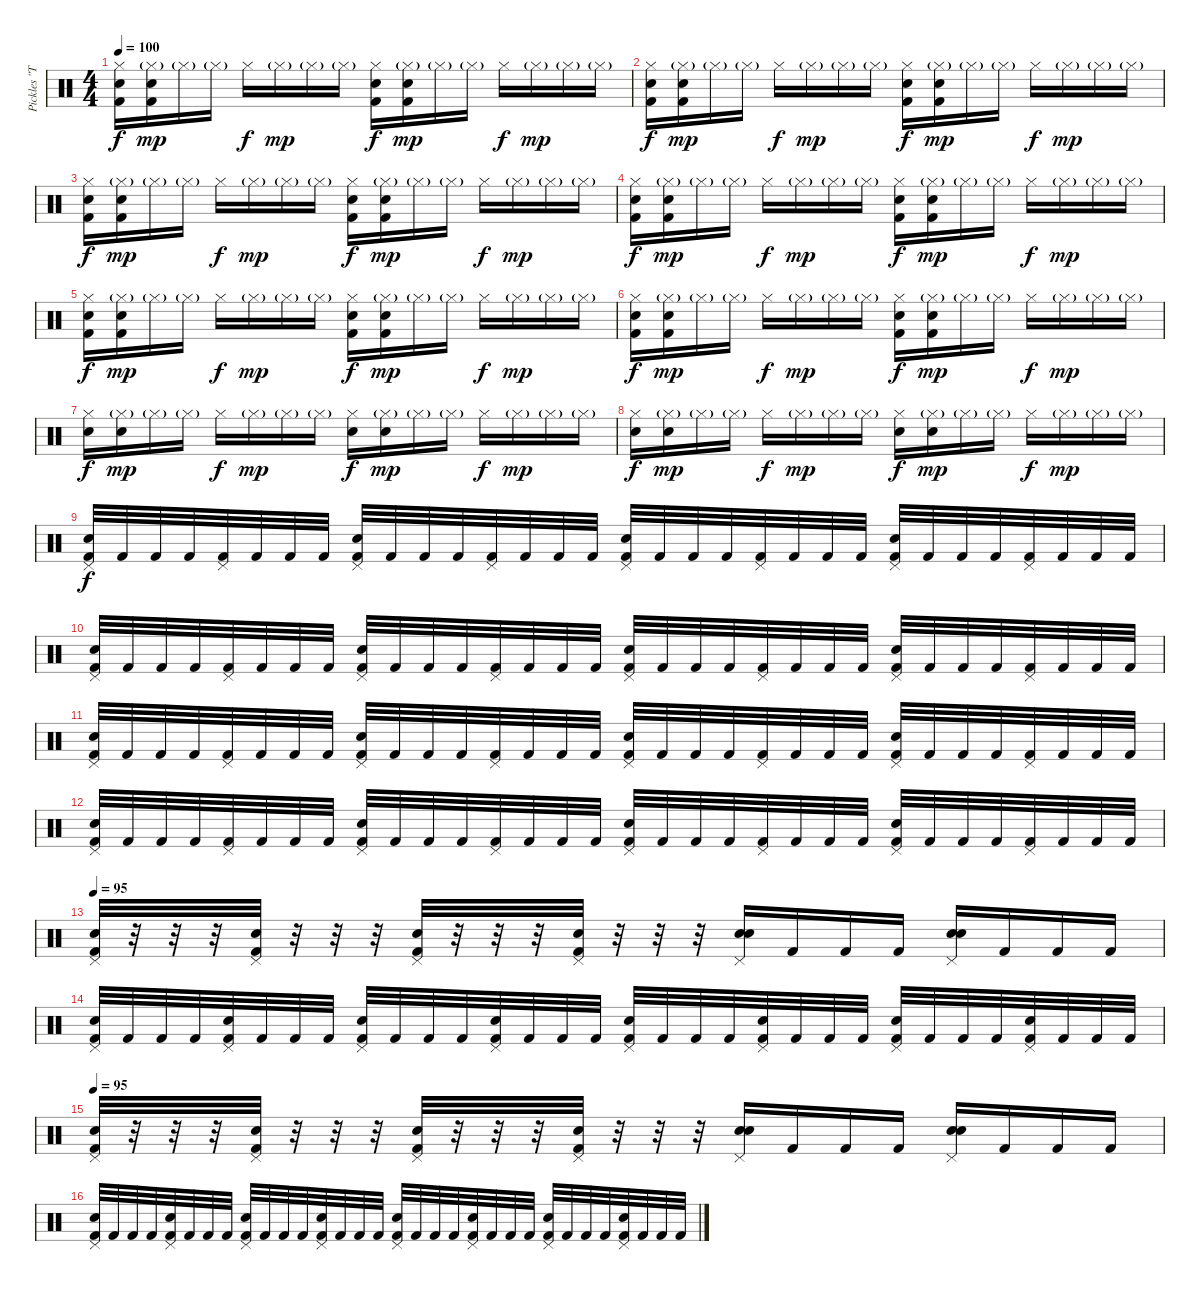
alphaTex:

\track ("Pickles \"The Drummer\"" "Pickles \"T") {instrument percussion}
\staff {score}
\articulation defaults
\ts (4 4)
\tempo 100
\clef neutral
\ks c
("Hi-Hat (closed)" "Kick (hit) 2" "Snare (hit) 2").16{dy f} ("Hi-Hat (closed)"{g} "Kick (hit) 2" "Snare (hit) 2").16{dy mp} "Hi-Hat (closed)"{g}.16 "Hi-Hat (closed)"{g}.16 "Hi-Hat (closed)".16{dy f} "Hi-Hat (closed)"{g}.16{dy mp} "Hi-Hat (closed)"{g}.16 "Hi-Hat (closed)"{g}.16 ("Hi-Hat (closed)" "Kick (hit) 2" "Snare (hit) 2").16{dy f} ("Hi-Hat (closed)"{g} "Kick (hit) 2" "Snare (hit) 2").16{dy mp} "Hi-Hat (closed)"{g}.16 "Hi-Hat (closed)"{g}.16 "Hi-Hat (closed)".16{dy f} "Hi-Hat (closed)"{g}.16{dy mp} "Hi-Hat (closed)"{g}.16 "Hi-Hat (closed)"{g}.16 |
("Hi-Hat (closed)" "Kick (hit) 2" "Snare (hit) 2").16{dy f} ("Hi-Hat (closed)"{g} "Kick (hit) 2" "Snare (hit) 2").16{dy mp} "Hi-Hat (closed)"{g}.16 "Hi-Hat (closed)"{g}.16 "Hi-Hat (closed)".16{dy f} "Hi-Hat (closed)"{g}.16{dy mp} "Hi-Hat (closed)"{g}.16 "Hi-Hat (closed)"{g}.16 ("Hi-Hat (closed)" "Kick (hit) 2" "Snare (hit) 2").16{dy f} ("Hi-Hat (closed)"{g} "Kick (hit) 2" "Snare (hit) 2").16{dy mp} "Hi-Hat (closed)"{g}.16 "Hi-Hat (closed)"{g}.16 "Hi-Hat (closed)".16{dy f} "Hi-Hat (closed)"{g}.16{dy mp} "Hi-Hat (closed)"{g}.16 "Hi-Hat (closed)"{g}.16 |
("Hi-Hat (closed)" "Kick (hit) 2" "Snare (hit) 2").16{dy f} ("Hi-Hat (closed)"{g} "Kick (hit) 2" "Snare (hit) 2").16{dy mp} "Hi-Hat (closed)"{g}.16 "Hi-Hat (closed)"{g}.16 "Hi-Hat (closed)".16{dy f} "Hi-Hat (closed)"{g}.16{dy mp} "Hi-Hat (closed)"{g}.16 "Hi-Hat (closed)"{g}.16 ("Hi-Hat (closed)" "Kick (hit) 2" "Snare (hit) 2").16{dy f} ("Hi-Hat (closed)"{g} "Kick (hit) 2" "Snare (hit) 2").16{dy mp} "Hi-Hat (closed)"{g}.16 "Hi-Hat (closed)"{g}.16 "Hi-Hat (closed)".16{dy f} "Hi-Hat (closed)"{g}.16{dy mp} "Hi-Hat (closed)"{g}.16 "Hi-Hat (closed)"{g}.16 |
("Hi-Hat (closed)" "Kick (hit) 2" "Snare (hit) 2").16{dy f} ("Hi-Hat (closed)"{g} "Kick (hit) 2" "Snare (hit) 2").16{dy mp} "Hi-Hat (closed)"{g}.16 "Hi-Hat (closed)"{g}.16 "Hi-Hat (closed)".16{dy f} "Hi-Hat (closed)"{g}.16{dy mp} "Hi-Hat (closed)"{g}.16 "Hi-Hat (closed)"{g}.16 ("Hi-Hat (closed)" "Kick (hit) 2" "Snare (hit) 2").16{dy f} ("Hi-Hat (closed)"{g} "Kick (hit) 2" "Snare (hit) 2").16{dy mp} "Hi-Hat (closed)"{g}.16 "Hi-Hat (closed)"{g}.16 "Hi-Hat (closed)".16{dy f} "Hi-Hat (closed)"{g}.16{dy mp} "Hi-Hat (closed)"{g}.16 "Hi-Hat (closed)"{g}.16 |
("Hi-Hat (closed)" "Kick (hit) 2" "Snare (hit) 2").16{dy f} ("Hi-Hat (closed)"{g} "Kick (hit) 2" "Snare (hit) 2").16{dy mp} "Hi-Hat (closed)"{g}.16 "Hi-Hat (closed)"{g}.16 "Hi-Hat (closed)".16{dy f} "Hi-Hat (closed)"{g}.16{dy mp} "Hi-Hat (closed)"{g}.16 "Hi-Hat (closed)"{g}.16 ("Hi-Hat (closed)" "Kick (hit) 2" "Snare (hit) 2").16{dy f} ("Hi-Hat (closed)"{g} "Kick (hit) 2" "Snare (hit) 2").16{dy mp} "Hi-Hat (closed)"{g}.16 "Hi-Hat (closed)"{g}.16 "Hi-Hat (closed)".16{dy f} "Hi-Hat (closed)"{g}.16{dy mp} "Hi-Hat (closed)"{g}.16 "Hi-Hat (closed)"{g}.16 |
("Hi-Hat (closed)" "Kick (hit) 2" "Snare (hit) 2").16{dy f} ("Hi-Hat (closed)"{g} "Kick (hit) 2" "Snare (hit) 2").16{dy mp} "Hi-Hat (closed)"{g}.16 "Hi-Hat (closed)"{g}.16 "Hi-Hat (closed)".16{dy f} "Hi-Hat (closed)"{g}.16{dy mp} "Hi-Hat (closed)"{g}.16 "Hi-Hat (closed)"{g}.16 ("Hi-Hat (closed)" "Kick (hit) 2" "Snare (hit) 2").16{dy f} ("Hi-Hat (closed)"{g} "Kick (hit) 2" "Snare (hit) 2").16{dy mp} "Hi-Hat (closed)"{g}.16 "Hi-Hat (closed)"{g}.16 "Hi-Hat (closed)".16{dy f} "Hi-Hat (closed)"{g}.16{dy mp} "Hi-Hat (closed)"{g}.16 "Hi-Hat (closed)"{g}.16 |
("Hi-Hat (closed)" "Electric Snare (hit)").16{dy f} ("Hi-Hat (closed)"{g} "Electric Snare (hit)").16{dy mp} "Hi-Hat (closed)"{g}.16 "Hi-Hat (closed)"{g}.16 "Hi-Hat (closed)".16{dy f} "Hi-Hat (closed)"{g}.16{dy mp} "Hi-Hat (closed)"{g}.16 "Hi-Hat (closed)"{g}.16 ("Hi-Hat (closed)" "Electric Snare (hit)").16{dy f} ("Hi-Hat (closed)"{g} "Electric Snare (hit)").16{dy mp} "Hi-Hat (closed)"{g}.16 "Hi-Hat (closed)"{g}.16 "Hi-Hat (closed)".16{dy f} "Hi-Hat (closed)"{g}.16{dy mp} "Hi-Hat (closed)"{g}.16 "Hi-Hat (closed)"{g}.16 |
("Hi-Hat (closed)" "Electric Snare (hit)").16{dy f} ("Hi-Hat (closed)"{g} "Electric Snare (hit)").16{dy mp} "Hi-Hat (closed)"{g}.16 "Hi-Hat (closed)"{g}.16 "Hi-Hat (closed)".16{dy f} "Hi-Hat (closed)"{g}.16{dy mp} "Hi-Hat (closed)"{g}.16 "Hi-Hat (closed)"{g}.16 ("Hi-Hat (closed)" "Electric Snare (hit)").16{dy f} ("Hi-Hat (closed)"{g} "Electric Snare (hit)").16{dy mp} "Hi-Hat (closed)"{g}.16 "Hi-Hat (closed)"{g}.16 "Hi-Hat (closed)".16{dy f} "Hi-Hat (closed)"{g}.16{dy mp} "Hi-Hat (closed)"{g}.16 "Hi-Hat (closed)"{g}.16 |
("Pedal Hi-Hat (hit)" "Electric Snare (hit)" "Kick (hit) 2").32{dy f} "Kick (hit) 2".32 "Kick (hit) 2".32 "Kick (hit) 2".32 ("Pedal Hi-Hat (hit)" "Kick (hit) 2").32 "Kick (hit) 2".32 "Kick (hit) 2".32 "Kick (hit) 2".32 ("Pedal Hi-Hat (hit)" "Electric Snare (hit)" "Kick (hit) 2").32 "Kick (hit) 2".32 "Kick (hit) 2".32 "Kick (hit) 2".32 ("Pedal Hi-Hat (hit)" "Kick (hit) 2").32 "Kick (hit) 2".32 "Kick (hit) 2".32 "Kick (hit) 2".32 ("Pedal Hi-Hat (hit)" "Electric Snare (hit)" "Kick (hit) 2").32 "Kick (hit) 2".32 "Kick (hit) 2".32 "Kick (hit) 2".32 ("Pedal Hi-Hat (hit)" "Kick (hit) 2").32 "Kick (hit) 2".32 "Kick (hit) 2".32 "Kick (hit) 2".32 ("Pedal Hi-Hat (hit)" "Electric Snare (hit)" "Kick (hit) 2").32 "Kick (hit) 2".32 "Kick (hit) 2".32 "Kick (hit) 2".32 ("Pedal Hi-Hat (hit)" "Kick (hit) 2").32 "Kick (hit) 2".32 "Kick (hit) 2".32 "Kick (hit) 2".32 |
("Pedal Hi-Hat (hit)" "Electric Snare (hit)" "Kick (hit) 2").32 "Kick (hit) 2".32 "Kick (hit) 2".32 "Kick (hit) 2".32 ("Pedal Hi-Hat (hit)" "Kick (hit) 2").32 "Kick (hit) 2".32 "Kick (hit) 2".32 "Kick (hit) 2".32 ("Pedal Hi-Hat (hit)" "Electric Snare (hit)" "Kick (hit) 2").32 "Kick (hit) 2".32 "Kick (hit) 2".32 "Kick (hit) 2".32 ("Pedal Hi-Hat (hit)" "Kick (hit) 2").32 "Kick (hit) 2".32 "Kick (hit) 2".32 "Kick (hit) 2".32 ("Pedal Hi-Hat (hit)" "Electric Snare (hit)" "Kick (hit) 2").32 "Kick (hit) 2".32 "Kick (hit) 2".32 "Kick (hit) 2".32 ("Pedal Hi-Hat (hit)" "Kick (hit) 2").32 "Kick (hit) 2".32 "Kick (hit) 2".32 "Kick (hit) 2".32 ("Pedal Hi-Hat (hit)" "Electric Snare (hit)" "Kick (hit) 2").32 "Kick (hit) 2".32 "Kick (hit) 2".32 "Kick (hit) 2".32 ("Pedal Hi-Hat (hit)" "Kick (hit) 2").32 "Kick (hit) 2".32 "Kick (hit) 2".32 "Kick (hit) 2".32 |
("Pedal Hi-Hat (hit)" "Electric Snare (hit)" "Kick (hit) 2").32 "Kick (hit) 2".32 "Kick (hit) 2".32 "Kick (hit) 2".32 ("Pedal Hi-Hat (hit)" "Kick (hit) 2").32 "Kick (hit) 2".32 "Kick (hit) 2".32 "Kick (hit) 2".32 ("Pedal Hi-Hat (hit)" "Electric Snare (hit)" "Kick (hit) 2").32 "Kick (hit) 2".32 "Kick (hit) 2".32 "Kick (hit) 2".32 ("Pedal Hi-Hat (hit)" "Kick (hit) 2").32 "Kick (hit) 2".32 "Kick (hit) 2".32 "Kick (hit) 2".32 ("Pedal Hi-Hat (hit)" "Electric Snare (hit)" "Kick (hit) 2").32 "Kick (hit) 2".32 "Kick (hit) 2".32 "Kick (hit) 2".32 ("Pedal Hi-Hat (hit)" "Kick (hit) 2").32 "Kick (hit) 2".32 "Kick (hit) 2".32 "Kick (hit) 2".32 ("Pedal Hi-Hat (hit)" "Electric Snare (hit)" "Kick (hit) 2").32 "Kick (hit) 2".32 "Kick (hit) 2".32 "Kick (hit) 2".32 ("Pedal Hi-Hat (hit)" "Kick (hit) 2").32 "Kick (hit) 2".32 "Kick (hit) 2".32 "Kick (hit) 2".32 |
("Pedal Hi-Hat (hit)" "Electric Snare (hit)" "Kick (hit) 2").32 "Kick (hit) 2".32 "Kick (hit) 2".32 "Kick (hit) 2".32 ("Pedal Hi-Hat (hit)" "Kick (hit) 2").32 "Kick (hit) 2".32 "Kick (hit) 2".32 "Kick (hit) 2".32 ("Pedal Hi-Hat (hit)" "Electric Snare (hit)" "Kick (hit) 2").32 "Kick (hit) 2".32 "Kick (hit) 2".32 "Kick (hit) 2".32 ("Pedal Hi-Hat (hit)" "Kick (hit) 2").32 "Kick (hit) 2".32 "Kick (hit) 2".32 "Kick (hit) 2".32 ("Pedal Hi-Hat (hit)" "Electric Snare (hit)" "Kick (hit) 2").32 "Kick (hit) 2".32 "Kick (hit) 2".32 "Kick (hit) 2".32 ("Pedal Hi-Hat (hit)" "Kick (hit) 2").32 "Kick (hit) 2".32 "Kick (hit) 2".32 "Kick (hit) 2".32 ("Pedal Hi-Hat (hit)" "Electric Snare (hit)" "Kick (hit) 2").32 "Kick (hit) 2".32 "Kick (hit) 2".32 "Kick (hit) 2".32 ("Pedal Hi-Hat (hit)" "Kick (hit) 2").32 "Kick (hit) 2".32 "Kick (hit) 2".32 "Kick (hit) 2".32 |
\tempo 95
("Electric Snare (hit)" "Pedal Hi-Hat (hit)" "Kick (hit) 2").32 r.32 r.32 r.32 ("Electric Snare (hit)" "Pedal Hi-Hat (hit)" "Kick (hit) 2").32 r.32 r.32 r.32 ("Electric Snare (hit)" "Pedal Hi-Hat (hit)" "Kick (hit) 2").32 r.32 r.32 r.32 ("Electric Snare (hit)" "Pedal Hi-Hat (hit)" "Kick (hit) 2").32 r.32 r.32 r.32 ("Electric Snare (hit)" "Pedal Hi-Hat (hit)" "Snare (hit) 2").16 "Kick (hit) 2".16 "Kick (hit) 2".16 "Kick (hit) 2".16 ("Electric Snare (hit)" "Pedal Hi-Hat (hit)" "Snare (hit) 2").16 "Kick (hit) 2".16 "Kick (hit) 2".16 "Kick (hit) 2".16 |
("Pedal Hi-Hat (hit)" "Electric Snare (hit)" "Kick (hit) 2").32 "Kick (hit) 2".32 "Kick (hit) 2".32 "Kick (hit) 2".32 ("Pedal Hi-Hat (hit)" "Electric Snare (hit)" "Kick (hit) 2").32 "Kick (hit) 2".32 "Kick (hit) 2".32 "Kick (hit) 2".32 ("Pedal Hi-Hat (hit)" "Electric Snare (hit)" "Kick (hit) 2").32 "Kick (hit) 2".32 "Kick (hit) 2".32 "Kick (hit) 2".32 ("Pedal Hi-Hat (hit)" "Electric Snare (hit)" "Kick (hit) 2").32 "Kick (hit) 2".32 "Kick (hit) 2".32 "Kick (hit) 2".32 ("Pedal Hi-Hat (hit)" "Electric Snare (hit)" "Kick (hit) 2").32 "Kick (hit) 2".32 "Kick (hit) 2".32 "Kick (hit) 2".32 ("Pedal Hi-Hat (hit)" "Electric Snare (hit)" "Kick (hit) 2").32 "Kick (hit) 2".32 "Kick (hit) 2".32 "Kick (hit) 2".32 ("Pedal Hi-Hat (hit)" "Electric Snare (hit)" "Kick (hit) 2").32 "Kick (hit) 2".32 "Kick (hit) 2".32 "Kick (hit) 2".32 ("Pedal Hi-Hat (hit)" "Electric Snare (hit)" "Kick (hit) 2").32 "Kick (hit) 2".32 "Kick (hit) 2".32 "Kick (hit) 2".32 |
\tempo 95
("Electric Snare (hit)" "Pedal Hi-Hat (hit)" "Kick (hit) 2").32 r.32 r.32 r.32 ("Electric Snare (hit)" "Pedal Hi-Hat (hit)" "Kick (hit) 2").32 r.32 r.32 r.32 ("Electric Snare (hit)" "Pedal Hi-Hat (hit)" "Kick (hit) 2").32 r.32 r.32 r.32 ("Electric Snare (hit)" "Pedal Hi-Hat (hit)" "Kick (hit) 2").32 r.32 r.32 r.32 ("Electric Snare (hit)" "Pedal Hi-Hat (hit)" "Snare (hit) 2").16 "Kick (hit) 2".16 "Kick (hit) 2".16 "Kick (hit) 2".16 ("Electric Snare (hit)" "Pedal Hi-Hat (hit)" "Snare (hit) 2").16 "Kick (hit) 2".16 "Kick (hit) 2".16 "Kick (hit) 2".16 |
("Pedal Hi-Hat (hit)" "Electric Snare (hit)" "Kick (hit) 2").32 "Kick (hit) 2".32 "Kick (hit) 2".32 "Kick (hit) 2".32 ("Pedal Hi-Hat (hit)" "Electric Snare (hit)" "Kick (hit) 2").32 "Kick (hit) 2".32 "Kick (hit) 2".32 "Kick (hit) 2".32 ("Pedal Hi-Hat (hit)" "Electric Snare (hit)" "Kick (hit) 2").32 "Kick (hit) 2".32 "Kick (hit) 2".32 "Kick (hit) 2".32 ("Pedal Hi-Hat (hit)" "Electric Snare (hit)" "Kick (hit) 2").32 "Kick (hit) 2".32 "Kick (hit) 2".32 "Kick (hit) 2".32 ("Pedal Hi-Hat (hit)" "Electric Snare (hit)" "Kick (hit) 2").32 "Kick (hit) 2".32 "Kick (hit) 2".32 "Kick (hit) 2".32 ("Pedal Hi-Hat (hit)" "Electric Snare (hit)" "Kick (hit) 2").32 "Kick (hit) 2".32 "Kick (hit) 2".32 "Kick (hit) 2".32 ("Pedal Hi-Hat (hit)" "Electric Snare (hit)" "Kick (hit) 2").32 "Kick (hit) 2".32 "Kick (hit) 2".32 "Kick (hit) 2".32 ("Pedal Hi-Hat (hit)" "Electric Snare (hit)" "Kick (hit) 2").32 "Kick (hit) 2".32 "Kick (hit) 2".32 "Kick (hit) 2".32
